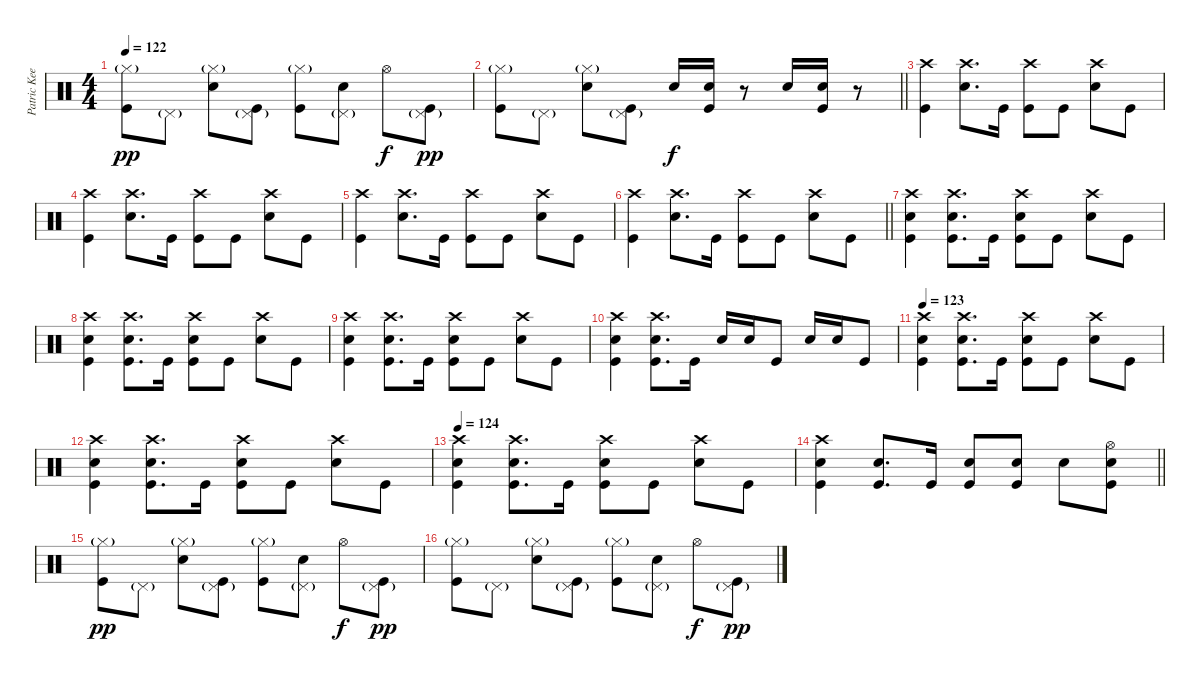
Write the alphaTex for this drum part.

\track ("Patric Keeler (Drums)" "Patric Kee") {instrument percussion}
\staff {score}
\articulation defaults
\ts (4 4)
\tempo 122
\clef neutral
\ks c
("Hi-Hat (closed)"{g} "Kick (hit)").8{dy pp} "Pedal Hi-Hat (hit)"{g}.8 ("Hi-Hat (closed)"{g} "Snare (hit) 2").8 ("Pedal Hi-Hat (hit)"{g} "Kick (hit)").8 ("Hi-Hat (closed)"{g} "Kick (hit)").8 ("Pedal Hi-Hat (hit)"{g} "Snare (hit) 2").8 "Hi-Hat (open)".8{dy f} ("Pedal Hi-Hat (hit)"{g} "Kick (hit)").8{dy pp} |
\barLineRight lightlight
("Hi-Hat (closed)"{g} "Kick (hit)").8 "Pedal Hi-Hat (hit)"{g}.8 ("Hi-Hat (closed)"{g} "Snare (hit) 2").8 ("Pedal Hi-Hat (hit)"{g} "Kick (hit)").8 "Snare (hit) 2".16{dy f} ("Snare (hit) 2" "Kick (hit)").16 r.8 "Snare (hit) 2".16 ("Snare (hit) 2" "Kick (hit)").16 r.8 |
("Crash high (hit)" "Kick (hit)").4 ("Crash high (hit)" "Snare (hit) 2").8{d} "Kick (hit)".16 ("Crash high (hit)" "Kick (hit)").8 "Kick (hit)".8 ("Crash high (hit)" "Snare (hit) 2").8 "Kick (hit)".8 |
("Crash high (hit)" "Kick (hit)").4 ("Crash high (hit)" "Snare (hit) 2").8{d} "Kick (hit)".16 ("Crash high (hit)" "Kick (hit)").8 "Kick (hit)".8 ("Crash high (hit)" "Snare (hit) 2").8 "Kick (hit)".8 |
("Crash high (hit)" "Kick (hit)").4 ("Crash high (hit)" "Snare (hit) 2").8{d} "Kick (hit)".16 ("Crash high (hit)" "Kick (hit)").8 "Kick (hit)".8 ("Crash high (hit)" "Snare (hit) 2").8 "Kick (hit)".8 |
\barLineRight lightlight
("Crash high (hit)" "Kick (hit)").4 ("Crash high (hit)" "Snare (hit) 2").8{d} "Kick (hit)".16 ("Crash high (hit)" "Kick (hit)").8 "Kick (hit)".8 ("Crash high (hit)" "Snare (hit) 2").8 "Kick (hit)".8 |
("Crash high (hit)" "Snare (hit) 2" "Kick (hit)").4 ("Crash high (hit)" "Snare (hit) 2" "Kick (hit)").8{d} "Kick (hit)".16 ("Crash high (hit)" "Snare (hit) 2" "Kick (hit)").8 "Kick (hit)".8 ("Crash high (hit)" "Snare (hit) 2").8 "Kick (hit)".8 |
("Crash high (hit)" "Snare (hit) 2" "Kick (hit)").4 ("Crash high (hit)" "Snare (hit) 2" "Kick (hit)").8{d} "Kick (hit)".16 ("Crash high (hit)" "Snare (hit) 2" "Kick (hit)").8 "Kick (hit)".8 ("Crash high (hit)" "Snare (hit) 2").8 "Kick (hit)".8 |
("Crash high (hit)" "Snare (hit) 2" "Kick (hit)").4 ("Crash high (hit)" "Snare (hit) 2" "Kick (hit)").8{d} "Kick (hit)".16 ("Crash high (hit)" "Snare (hit) 2" "Kick (hit)").8 "Kick (hit)".8 ("Crash high (hit)" "Snare (hit) 2").8 "Kick (hit)".8 |
("Crash high (hit)" "Snare (hit) 2" "Kick (hit)").4 ("Crash high (hit)" "Snare (hit) 2" "Kick (hit)").8{d} "Kick (hit)".16 "Snare (hit) 2".16 "Snare (hit) 2".16 "Kick (hit)".8 "Snare (hit) 2".16 "Snare (hit) 2".16 "Kick (hit)".8 |
\tempo 123
("Crash high (hit)" "Snare (hit) 2" "Kick (hit)").4 ("Crash high (hit)" "Snare (hit) 2" "Kick (hit)").8{d} "Kick (hit)".16 ("Crash high (hit)" "Snare (hit) 2" "Kick (hit)").8 "Kick (hit)".8 ("Crash high (hit)" "Snare (hit) 2").8 "Kick (hit)".8 |
("Crash high (hit)" "Snare (hit) 2" "Kick (hit)").4 ("Crash high (hit)" "Snare (hit) 2" "Kick (hit)").8{d} "Kick (hit)".16 ("Crash high (hit)" "Snare (hit) 2" "Kick (hit)").8 "Kick (hit)".8 ("Crash high (hit)" "Snare (hit) 2").8 "Kick (hit)".8 |
\tempo 124
("Crash high (hit)" "Snare (hit) 2" "Kick (hit)").4 ("Crash high (hit)" "Snare (hit) 2" "Kick (hit)").8{d} "Kick (hit)".16 ("Crash high (hit)" "Snare (hit) 2" "Kick (hit)").8 "Kick (hit)".8 ("Crash high (hit)" "Snare (hit) 2").8 "Kick (hit)".8 |
\barLineRight lightlight
("Crash high (hit)" "Snare (hit) 2" "Kick (hit)").4 ("Snare (hit) 2" "Kick (hit)").8{d} "Kick (hit)".16 ("Snare (hit) 2" "Kick (hit)").8 ("Snare (hit) 2" "Kick (hit)").8 "Snare (hit) 2".8 ("Hi-Hat (open)" "Snare (hit) 2" "Kick (hit)").8 |
("Hi-Hat (closed)"{g} "Kick (hit)").8{dy pp} "Pedal Hi-Hat (hit)"{g}.8 ("Hi-Hat (closed)"{g} "Snare (hit) 2").8 ("Pedal Hi-Hat (hit)"{g} "Kick (hit)").8 ("Hi-Hat (closed)"{g} "Kick (hit)").8 ("Pedal Hi-Hat (hit)"{g} "Snare (hit) 2").8 "Hi-Hat (open)".8{dy f} ("Pedal Hi-Hat (hit)"{g} "Kick (hit)").8{dy pp} |
("Hi-Hat (closed)"{g} "Kick (hit)").8 "Pedal Hi-Hat (hit)"{g}.8 ("Hi-Hat (closed)"{g} "Snare (hit) 2").8 ("Pedal Hi-Hat (hit)"{g} "Kick (hit)").8 ("Hi-Hat (closed)"{g} "Kick (hit)").8 ("Pedal Hi-Hat (hit)"{g} "Snare (hit) 2").8 "Hi-Hat (open)".8{dy f} ("Pedal Hi-Hat (hit)"{g} "Kick (hit)").8{dy pp}
